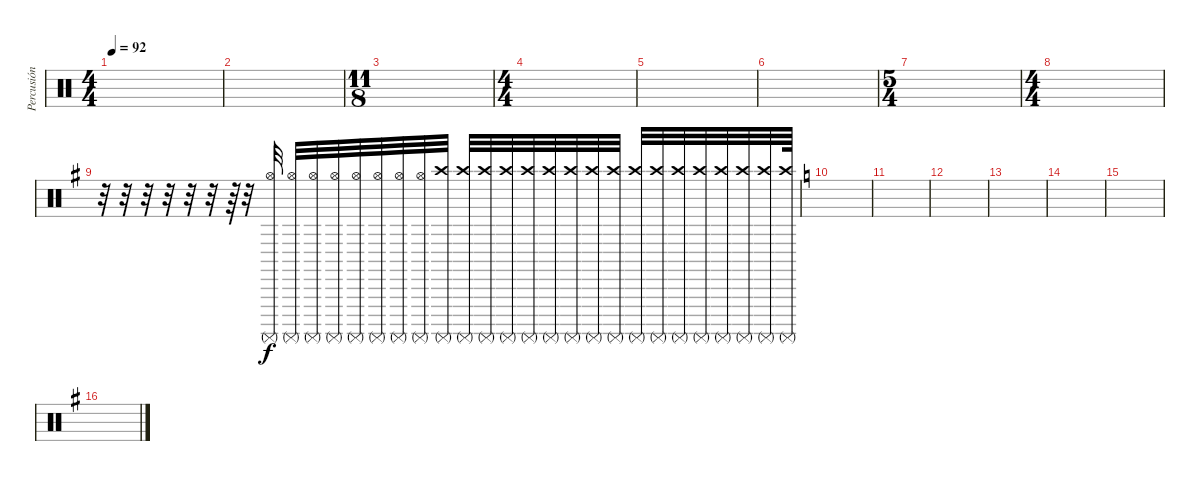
\track ("Percusión Pista Auxiliar" "Percusión ") {instrument percussion}
\staff {score}
\articulation defaults
\ts (4 4)
\tempo 92
\clef neutral
\ks c
|
|
\ts (11 8)
|
\ts (4 4)
|
|
|
\ts (5 4)
|
\ts (4 4)
|
\ks g
r.32 r.32 r.32 r.32 r.32 r.32 r.64{volume 3} r.32{volume 13} ("Surdo (mute)" "Hi-Hat (open)").32 ("Surdo (mute)" "Hi-Hat (open)").32 ("Surdo (mute)" "Hi-Hat (open)").32 ("Surdo (mute)" "Hi-Hat (open)").32 ("Surdo (mute)" "Hi-Hat (open)").32 ("Surdo (mute)" "Hi-Hat (open)").32 ("Surdo (mute)" "Hi-Hat (open)").32 ("Surdo (mute)" "Hi-Hat (open)").32 ("Surdo (mute)" "Crash high (hit)").32 ("Surdo (mute)" "Crash high (hit)").32 ("Surdo (mute)" "Crash high (hit)").32 ("Surdo (mute)" "Crash high (hit)").32 ("Surdo (mute)" "Crash high (hit)").32 ("Surdo (mute)" "Crash high (hit)").32 ("Surdo (mute)" "Crash high (hit)").32 ("Surdo (mute)" "Crash high (hit)").32 ("Surdo (mute)" "Crash high (hit)").32 ("Surdo (mute)" "Crash high (hit)").32 ("Surdo (mute)" "Crash high (hit)").32 ("Surdo (mute)" "Crash high (hit)").32 ("Surdo (mute)" "Crash high (hit)").32 ("Surdo (mute)" "Crash high (hit)").32 ("Surdo (mute)" "Crash high (hit)").32 ("Surdo (mute)" "Crash high (hit)").32 ("Surdo (mute)" "Crash high (hit)").64 |
\ks c
|
|
|
|
|
|
\ks g
